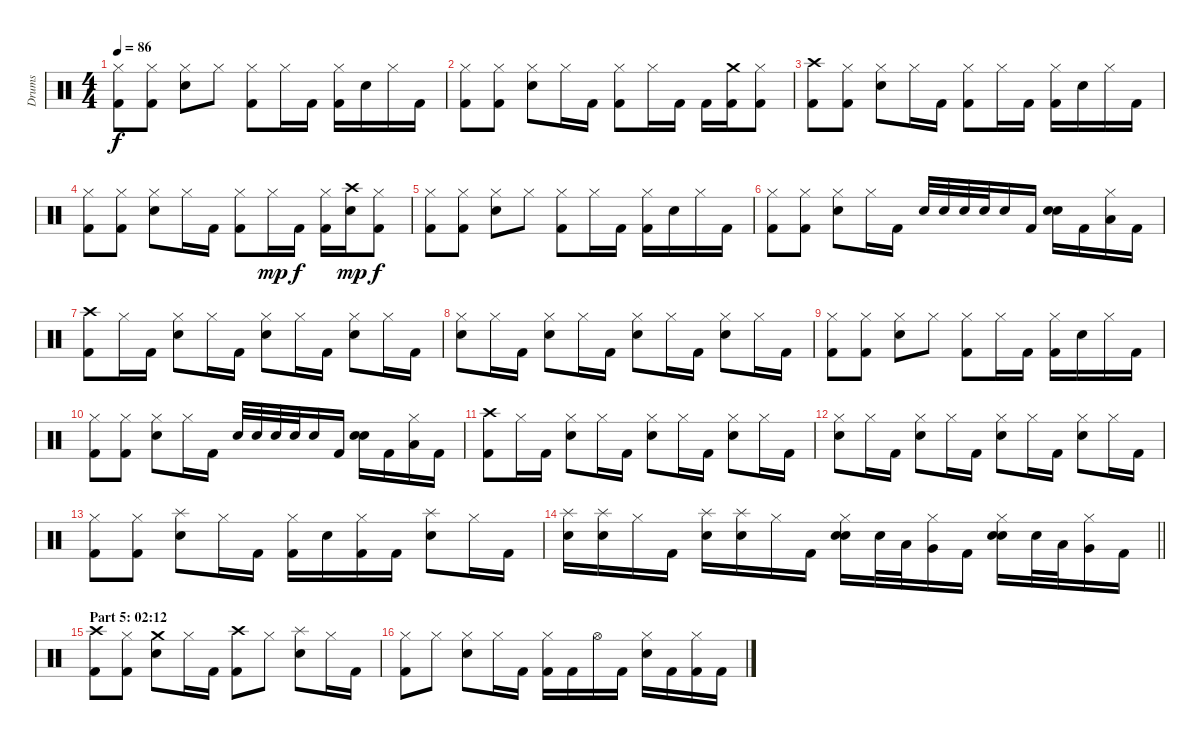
\track ("Drums" "Drums") {instrument percussion}
\staff {score}
\articulation defaults
\ts (4 4)
\tempo 86
\clef neutral
\ks c
("Hi-Hat (closed)" "Kick (hit) 2").8{dy f} ("Hi-Hat (closed)" "Kick (hit) 2").8 ("Hi-Hat (closed)" "Electric Snare (hit)").8 "Hi-Hat (closed)".8 ("Hi-Hat (closed)" "Kick (hit) 2").8 "Hi-Hat (closed)".16 "Kick (hit) 2".16 ("Hi-Hat (closed)" "Kick (hit) 2").16 "Electric Snare (hit)".16 "Hi-Hat (closed)".16 "Kick (hit) 2".16 |
("Hi-Hat (closed)" "Kick (hit) 2").8 ("Hi-Hat (closed)" "Kick (hit) 2").8 ("Hi-Hat (closed)" "Electric Snare (hit)").8 "Hi-Hat (closed)".16 "Kick (hit) 2".16 ("Hi-Hat (closed)" "Kick (hit) 2").8 "Hi-Hat (closed)".16 "Kick (hit) 2".16 "Kick (hit) 2".16 ("Crash medium (hit)" "Kick (hit) 2").16 ("Hi-Hat (closed)" "Kick (hit) 2").8 |
("Crash high (hit)" "Kick (hit) 2").8 ("Hi-Hat (closed)" "Kick (hit) 2").8 ("Hi-Hat (closed)" "Electric Snare (hit)").8 "Hi-Hat (closed)".16 "Kick (hit) 2".16 ("Hi-Hat (closed)" "Kick (hit) 2").8 "Hi-Hat (closed)".16 "Kick (hit) 2".16 ("Hi-Hat (closed)" "Kick (hit) 2").16 "Electric Snare (hit)".16 "Hi-Hat (closed)".16 "Kick (hit) 2".16 |
("Hi-Hat (closed)" "Kick (hit) 2").8 ("Hi-Hat (closed)" "Kick (hit) 2").8 ("Hi-Hat (closed)" "Electric Snare (hit)").8 "Hi-Hat (closed)".16 "Kick (hit) 2".16 ("Hi-Hat (closed)" "Kick (hit) 2").8 "Hi-Hat (closed)".16{dy mp} "Kick (hit) 2".16{dy f} ("Hi-Hat (closed)" "Kick (hit) 2").16 ("Crash high (hit)" "Electric Snare (hit)").16{dy mp} ("Hi-Hat (closed)" "Kick (hit) 2").8{dy f} |
("Hi-Hat (closed)" "Kick (hit) 2").8 ("Hi-Hat (closed)" "Kick (hit) 2").8 ("Hi-Hat (closed)" "Electric Snare (hit)").8 "Hi-Hat (closed)".8 ("Hi-Hat (closed)" "Kick (hit) 2").8 "Hi-Hat (closed)".16 "Kick (hit) 2".16 ("Hi-Hat (closed)" "Kick (hit) 2").16 "Electric Snare (hit)".16 "Hi-Hat (closed)".16 "Kick (hit) 2".16 |
("Hi-Hat (closed)" "Kick (hit) 2").8 ("Hi-Hat (closed)" "Kick (hit) 2").8 ("Hi-Hat (closed)" "Electric Snare (hit)").8 "Hi-Hat (closed)".16 "Kick (hit) 2".16 "Electric Snare (hit)".32 "Electric Snare (hit)".32 "Electric Snare (hit)".32 "Electric Snare (hit)".32 "Electric Snare (hit)".16 "Kick (hit) 2".16 ("Electric Snare (hit)" "Electric Snare (hit)").16{bd 120} "Kick (hit) 2".16 ("Hi-Hat (closed)" "Low Tom (hit)").16 "Kick (hit) 2".16 |
("Crash high (hit)" "Kick (hit) 2").8 "Hi-Hat (closed)".16 "Kick (hit) 2".16 ("Hi-Hat (closed)" "Electric Snare (hit)").8 "Hi-Hat (closed)".16 "Kick (hit) 2".16 ("Hi-Hat (closed)" "Electric Snare (hit)").8 "Hi-Hat (closed)".16 "Kick (hit) 2".16 ("Hi-Hat (closed)" "Electric Snare (hit)").8 "Hi-Hat (closed)".16 "Kick (hit) 2".16 |
("Hi-Hat (closed)" "Electric Snare (hit)").8 "Hi-Hat (closed)".16 "Kick (hit) 2".16 ("Hi-Hat (closed)" "Electric Snare (hit)").8 "Hi-Hat (closed)".16 "Kick (hit) 2".16 ("Hi-Hat (closed)" "Electric Snare (hit)").8 "Hi-Hat (closed)".16 "Kick (hit) 2".16 ("Hi-Hat (closed)" "Electric Snare (hit)").8 "Hi-Hat (closed)".16 "Kick (hit) 2".16 |
("Hi-Hat (closed)" "Kick (hit) 2").8 ("Hi-Hat (closed)" "Kick (hit) 2").8 ("Hi-Hat (closed)" "Electric Snare (hit)").8 "Hi-Hat (closed)".8 ("Hi-Hat (closed)" "Kick (hit) 2").8 "Hi-Hat (closed)".16 "Kick (hit) 2".16 ("Hi-Hat (closed)" "Kick (hit) 2").16 "Electric Snare (hit)".16 "Hi-Hat (closed)".16 "Kick (hit) 2".16 |
("Hi-Hat (closed)" "Kick (hit) 2").8 ("Hi-Hat (closed)" "Kick (hit) 2").8 ("Hi-Hat (closed)" "Electric Snare (hit)").8 "Hi-Hat (closed)".16 "Kick (hit) 2".16 "Electric Snare (hit)".32 "Electric Snare (hit)".32 "Electric Snare (hit)".32 "Electric Snare (hit)".32 "Electric Snare (hit)".16 "Kick (hit) 2".16 ("Electric Snare (hit)" "Electric Snare (hit)").16{bd 120} "Kick (hit) 2".16 ("Hi-Hat (closed)" "Low Tom (hit)").16 "Kick (hit) 2".16 |
("Crash high (hit)" "Kick (hit) 2").8 "Hi-Hat (closed)".16 "Kick (hit) 2".16 ("Hi-Hat (closed)" "Electric Snare (hit)").8 "Hi-Hat (closed)".16 "Kick (hit) 2".16 ("Hi-Hat (closed)" "Electric Snare (hit)").8 "Hi-Hat (closed)".16 "Kick (hit) 2".16 ("Hi-Hat (closed)" "Electric Snare (hit)").8 "Hi-Hat (closed)".16 "Kick (hit) 2".16 |
("Hi-Hat (closed)" "Electric Snare (hit)").8 "Hi-Hat (closed)".16 "Kick (hit) 2".16 ("Hi-Hat (closed)" "Electric Snare (hit)").8 "Hi-Hat (closed)".16 "Kick (hit) 2".16 ("Hi-Hat (closed)" "Electric Snare (hit)").8 "Hi-Hat (closed)".16 "Kick (hit) 2".16 ("Hi-Hat (closed)" "Electric Snare (hit)").8 "Hi-Hat (closed)".16 "Kick (hit) 2".16 |
("Hi-Hat (closed)" "Kick (hit) 2").8 ("Hi-Hat (closed)" "Kick (hit) 2").8 ("Splash (hit)" "Electric Snare (hit)").8 "Hi-Hat (closed)".16 "Kick (hit) 2".16 ("Hi-Hat (closed)" "Kick (hit) 2").16 "Electric Snare (hit)".16 ("Hi-Hat (closed)" "Kick (hit) 2").16 "Kick (hit) 2".16 ("Splash (hit)" "Electric Snare (hit)").8 "Hi-Hat (closed)".16 "Kick (hit) 2".16 |
\barLineRight lightlight
("Splash (hit)" "Electric Snare (hit)").16 ("Splash (hit)" "Electric Snare (hit)").16 "Hi-Hat (closed)".16 "Kick (hit) 2".16 ("Splash (hit)" "Electric Snare (hit)").16 ("Splash (hit)" "Electric Snare (hit)").16 "Hi-Hat (closed)".16 "Kick (hit) 2".16 ("Hi-Hat (closed)" "Electric Snare (hit)" "Electric Snare (hit)").16{bu 60} "Electric Snare (hit)".32 "Low Tom (hit)".32 ("Hi-Hat (closed)" "Very Low Tom (hit)").16 "Kick (hit) 2".16 ("Hi-Hat (closed)" "Electric Snare (hit)" "Electric Snare (hit)").16{bu 60} "Electric Snare (hit)".32 "Low Tom (hit)".32 ("Hi-Hat (closed)" "Very Low Tom (hit)").16 "Kick (hit) 2".16 |
\section ("" "Part 5: 02:12")
("Crash high (hit)" "Kick (hit) 2").8 ("Hi-Hat (closed)" "Kick (hit) 2").8 ("Crash medium (hit)" "Electric Snare (hit)").8 "Hi-Hat (closed)".16 "Kick (hit) 2".16 ("Crash high (hit)" "Kick (hit) 2").8 "Hi-Hat (closed)".8 ("Splash (hit)" "Electric Snare (hit)").8 "Hi-Hat (closed)".16 "Kick (hit) 2".16 |
("Hi-Hat (closed)" "Kick (hit) 2").8 "Hi-Hat (closed)".8 ("Hi-Hat (closed)" "Electric Snare (hit)").8 "Hi-Hat (closed)".16 "Kick (hit) 2".16 ("Hi-Hat (closed)" "Kick (hit) 2").16 "Kick (hit) 2".16 "Hi-Hat (open)".16 "Kick (hit) 2".16 ("Hi-Hat (closed)" "Electric Snare (hit)").16 "Kick (hit) 2".16 ("Hi-Hat (closed)" "Kick (hit) 2").16 "Kick (hit) 2".16
